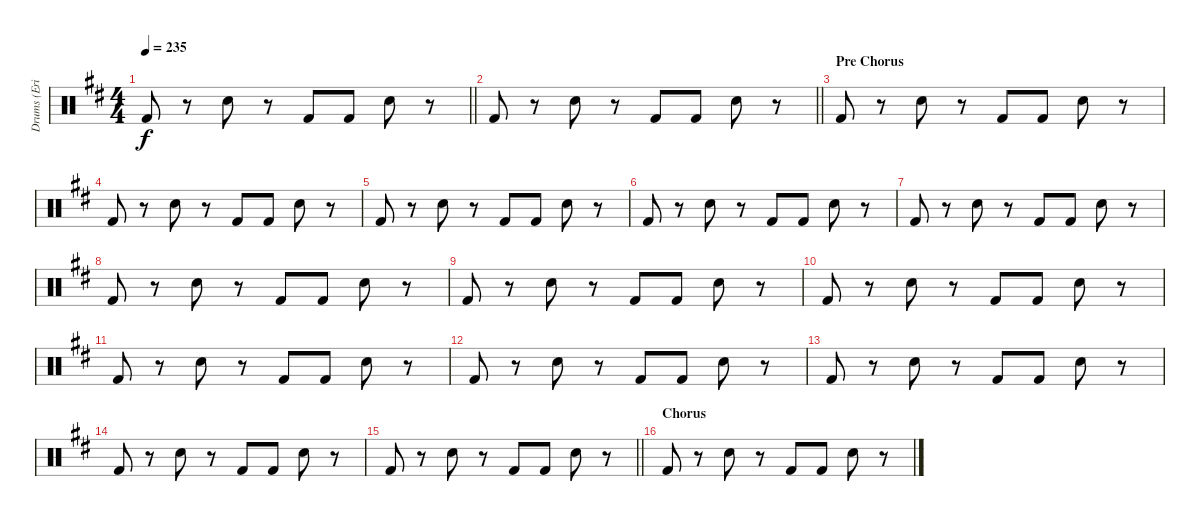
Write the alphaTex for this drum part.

\track ("Drums (Eric Carr)" "Drums (Eri") {instrument percussion}
\staff {score}
\articulation defaults
\ts (4 4)
\tempo 235
\clef neutral
\barLineRight lightlight
\ks d "Kick (hit) 2".8{dy f}
r.8 "Snare (hit) 2".8 r.8 "Kick (hit) 2".8 "Kick (hit) 2".8 "Snare (hit) 2".8 r.8 |
\barLineRight lightlight "Kick (hit) 2".8
r.8 "Snare (hit) 2".8 r.8 "Kick (hit) 2".8 "Kick (hit) 2".8 "Snare (hit) 2".8 r.8 |
\section ("" "Pre Chorus")
"Kick (hit) 2".8 r.8 "Snare (hit) 2".8 r.8 "Kick (hit) 2".8 "Kick (hit) 2".8 "Snare (hit) 2".8 r.8 |
"Kick (hit) 2".8 r.8 "Snare (hit) 2".8 r.8 "Kick (hit) 2".8 "Kick (hit) 2".8 "Snare (hit) 2".8 r.8 |
"Kick (hit) 2".8 r.8 "Snare (hit) 2".8 r.8 "Kick (hit) 2".8 "Kick (hit) 2".8 "Snare (hit) 2".8 r.8 |
"Kick (hit) 2".8 r.8 "Snare (hit) 2".8 r.8 "Kick (hit) 2".8 "Kick (hit) 2".8 "Snare (hit) 2".8 r.8 |
"Kick (hit) 2".8 r.8 "Snare (hit) 2".8 r.8 "Kick (hit) 2".8 "Kick (hit) 2".8 "Snare (hit) 2".8 r.8 |
"Kick (hit) 2".8 r.8 "Snare (hit) 2".8 r.8 "Kick (hit) 2".8 "Kick (hit) 2".8 "Snare (hit) 2".8 r.8 |
"Kick (hit) 2".8 r.8 "Snare (hit) 2".8 r.8 "Kick (hit) 2".8 "Kick (hit) 2".8 "Snare (hit) 2".8 r.8 |
"Kick (hit) 2".8 r.8 "Snare (hit) 2".8 r.8 "Kick (hit) 2".8 "Kick (hit) 2".8 "Snare (hit) 2".8 r.8 |
"Kick (hit) 2".8 r.8 "Snare (hit) 2".8 r.8 "Kick (hit) 2".8 "Kick (hit) 2".8 "Snare (hit) 2".8 r.8 |
"Kick (hit) 2".8 r.8 "Snare (hit) 2".8 r.8 "Kick (hit) 2".8 "Kick (hit) 2".8 "Snare (hit) 2".8 r.8 |
"Kick (hit) 2".8 r.8 "Snare (hit) 2".8 r.8 "Kick (hit) 2".8 "Kick (hit) 2".8 "Snare (hit) 2".8 r.8 |
"Kick (hit) 2".8 r.8 "Snare (hit) 2".8 r.8 "Kick (hit) 2".8 "Kick (hit) 2".8 "Snare (hit) 2".8 r.8 |
\barLineRight lightlight "Kick (hit) 2".8
r.8 "Snare (hit) 2".8 r.8 "Kick (hit) 2".8 "Kick (hit) 2".8 "Snare (hit) 2".8 r.8 |
\section ("" "Chorus")
"Kick (hit) 2".8 r.8 "Snare (hit) 2".8 r.8 "Kick (hit) 2".8 "Kick (hit) 2".8 "Snare (hit) 2".8 r.8
